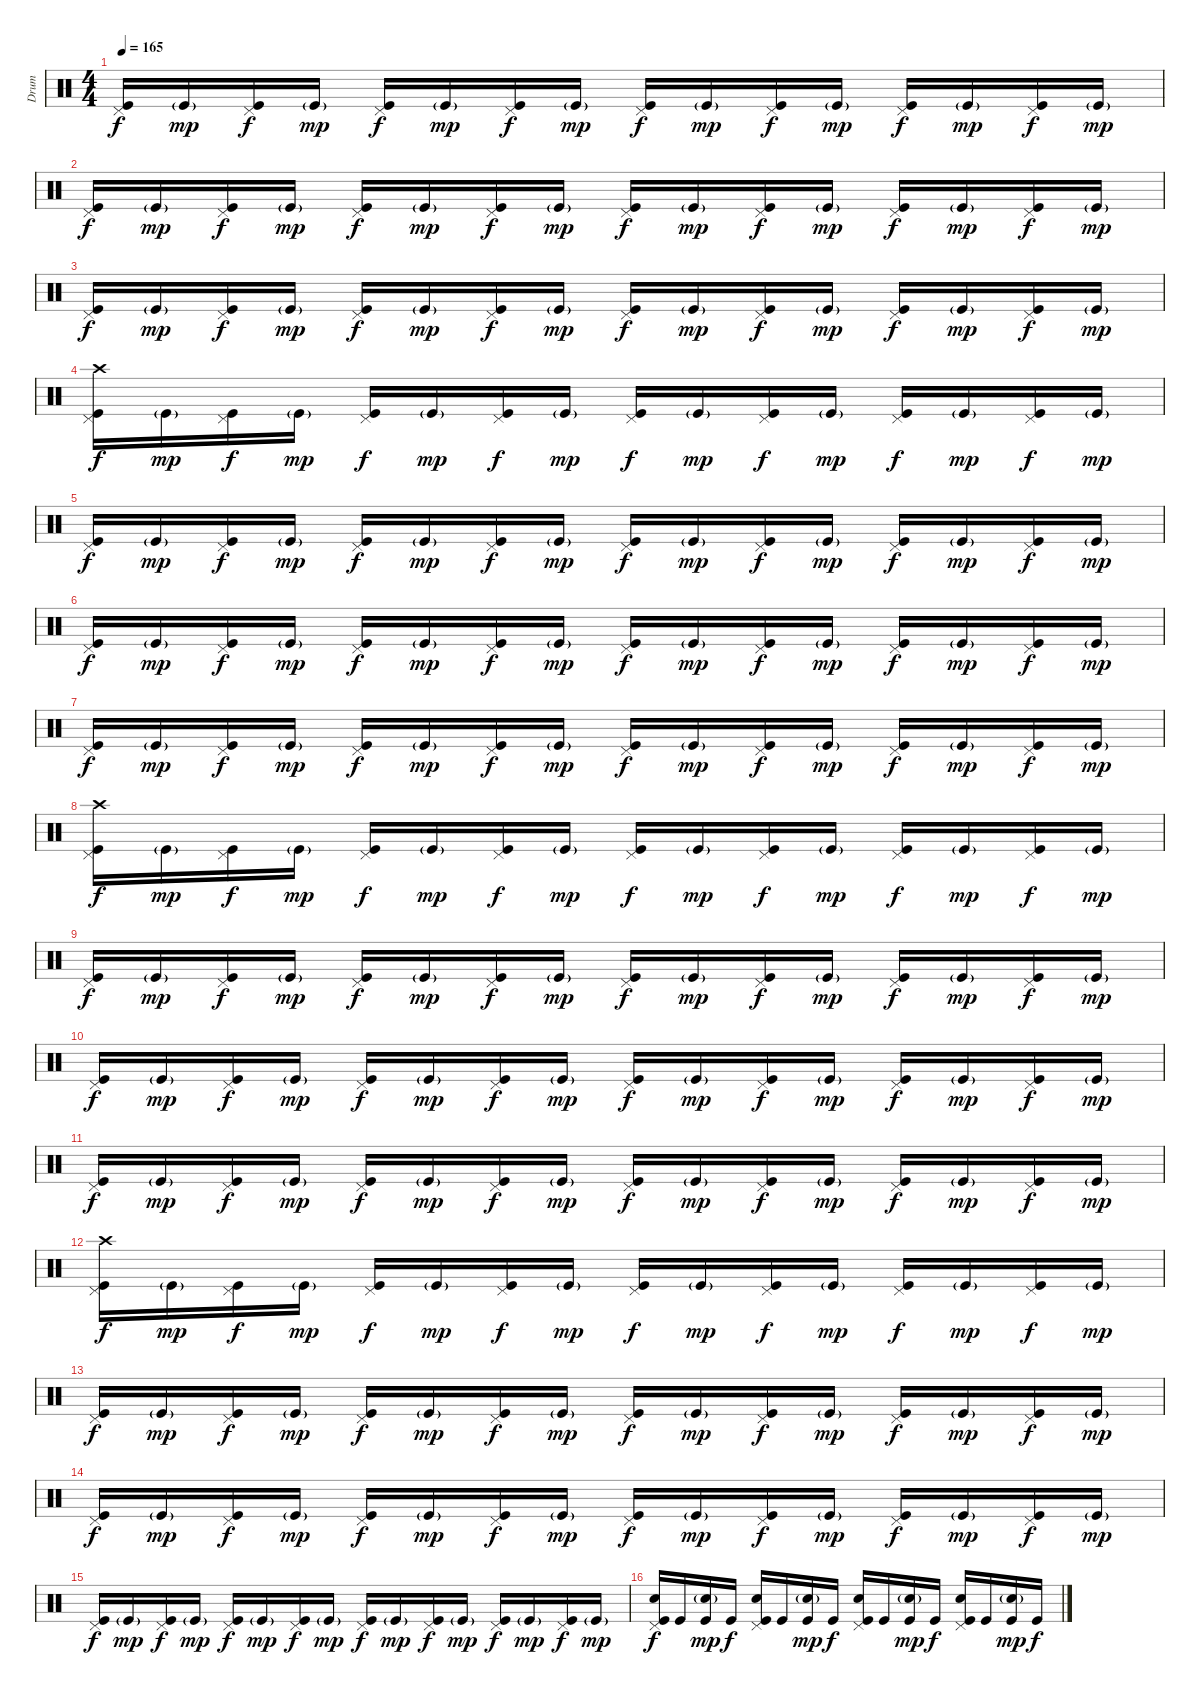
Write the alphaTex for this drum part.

\track ("Drum" "Drum") {instrument percussion}
\staff {score}
\articulation defaults
\ts (4 4)
\tempo 165
\clef neutral
\ks c
("Pedal Hi-Hat (hit)" "Kick (hit)").16{dy f} "Kick (hit)"{g}.16{dy mp} ("Pedal Hi-Hat (hit)" "Kick (hit)").16{dy f} "Kick (hit)"{g}.16{dy mp} ("Pedal Hi-Hat (hit)" "Kick (hit)").16{dy f} "Kick (hit)"{g}.16{dy mp} ("Pedal Hi-Hat (hit)" "Kick (hit)").16{dy f} "Kick (hit)"{g}.16{dy mp} ("Pedal Hi-Hat (hit)" "Kick (hit)").16{dy f} "Kick (hit)"{g}.16{dy mp} ("Pedal Hi-Hat (hit)" "Kick (hit)").16{dy f} "Kick (hit)"{g}.16{dy mp} ("Pedal Hi-Hat (hit)" "Kick (hit)").16{dy f} "Kick (hit)"{g}.16{dy mp} ("Pedal Hi-Hat (hit)" "Kick (hit)").16{dy f} "Kick (hit)"{g}.16{dy mp} |
("Pedal Hi-Hat (hit)" "Kick (hit)").16{dy f} "Kick (hit)"{g}.16{dy mp} ("Pedal Hi-Hat (hit)" "Kick (hit)").16{dy f} "Kick (hit)"{g}.16{dy mp} ("Pedal Hi-Hat (hit)" "Kick (hit)").16{dy f} "Kick (hit)"{g}.16{dy mp} ("Pedal Hi-Hat (hit)" "Kick (hit)").16{dy f} "Kick (hit)"{g}.16{dy mp} ("Pedal Hi-Hat (hit)" "Kick (hit)").16{dy f} "Kick (hit)"{g}.16{dy mp} ("Pedal Hi-Hat (hit)" "Kick (hit)").16{dy f} "Kick (hit)"{g}.16{dy mp} ("Pedal Hi-Hat (hit)" "Kick (hit)").16{dy f} "Kick (hit)"{g}.16{dy mp} ("Pedal Hi-Hat (hit)" "Kick (hit)").16{dy f} "Kick (hit)"{g}.16{dy mp} |
("Pedal Hi-Hat (hit)" "Kick (hit)").16{dy f} "Kick (hit)"{g}.16{dy mp} ("Pedal Hi-Hat (hit)" "Kick (hit)").16{dy f} "Kick (hit)"{g}.16{dy mp} ("Pedal Hi-Hat (hit)" "Kick (hit)").16{dy f} "Kick (hit)"{g}.16{dy mp} ("Pedal Hi-Hat (hit)" "Kick (hit)").16{dy f} "Kick (hit)"{g}.16{dy mp} ("Pedal Hi-Hat (hit)" "Kick (hit)").16{dy f} "Kick (hit)"{g}.16{dy mp} ("Pedal Hi-Hat (hit)" "Kick (hit)").16{dy f} "Kick (hit)"{g}.16{dy mp} ("Pedal Hi-Hat (hit)" "Kick (hit)").16{dy f} "Kick (hit)"{g}.16{dy mp} ("Pedal Hi-Hat (hit)" "Kick (hit)").16{dy f} "Kick (hit)"{g}.16{dy mp} |
("Crash high (hit)" "Pedal Hi-Hat (hit)" "Kick (hit)").16{dy f} "Kick (hit)"{g}.16{dy mp} ("Pedal Hi-Hat (hit)" "Kick (hit)").16{dy f} "Kick (hit)"{g}.16{dy mp} ("Pedal Hi-Hat (hit)" "Kick (hit)").16{dy f} "Kick (hit)"{g}.16{dy mp} ("Pedal Hi-Hat (hit)" "Kick (hit)").16{dy f} "Kick (hit)"{g}.16{dy mp} ("Pedal Hi-Hat (hit)" "Kick (hit)").16{dy f} "Kick (hit)"{g}.16{dy mp} ("Pedal Hi-Hat (hit)" "Kick (hit)").16{dy f} "Kick (hit)"{g}.16{dy mp} ("Pedal Hi-Hat (hit)" "Kick (hit)").16{dy f} "Kick (hit)"{g}.16{dy mp} ("Pedal Hi-Hat (hit)" "Kick (hit)").16{dy f} "Kick (hit)"{g}.16{dy mp} |
("Pedal Hi-Hat (hit)" "Kick (hit)").16{dy f} "Kick (hit)"{g}.16{dy mp} ("Pedal Hi-Hat (hit)" "Kick (hit)").16{dy f} "Kick (hit)"{g}.16{dy mp} ("Pedal Hi-Hat (hit)" "Kick (hit)").16{dy f} "Kick (hit)"{g}.16{dy mp} ("Pedal Hi-Hat (hit)" "Kick (hit)").16{dy f} "Kick (hit)"{g}.16{dy mp} ("Pedal Hi-Hat (hit)" "Kick (hit)").16{dy f} "Kick (hit)"{g}.16{dy mp} ("Pedal Hi-Hat (hit)" "Kick (hit)").16{dy f} "Kick (hit)"{g}.16{dy mp} ("Pedal Hi-Hat (hit)" "Kick (hit)").16{dy f} "Kick (hit)"{g}.16{dy mp} ("Pedal Hi-Hat (hit)" "Kick (hit)").16{dy f} "Kick (hit)"{g}.16{dy mp} |
("Pedal Hi-Hat (hit)" "Kick (hit)").16{dy f} "Kick (hit)"{g}.16{dy mp} ("Pedal Hi-Hat (hit)" "Kick (hit)").16{dy f} "Kick (hit)"{g}.16{dy mp} ("Pedal Hi-Hat (hit)" "Kick (hit)").16{dy f} "Kick (hit)"{g}.16{dy mp} ("Pedal Hi-Hat (hit)" "Kick (hit)").16{dy f} "Kick (hit)"{g}.16{dy mp} ("Pedal Hi-Hat (hit)" "Kick (hit)").16{dy f} "Kick (hit)"{g}.16{dy mp} ("Pedal Hi-Hat (hit)" "Kick (hit)").16{dy f} "Kick (hit)"{g}.16{dy mp} ("Pedal Hi-Hat (hit)" "Kick (hit)").16{dy f} "Kick (hit)"{g}.16{dy mp} ("Pedal Hi-Hat (hit)" "Kick (hit)").16{dy f} "Kick (hit)"{g}.16{dy mp} |
("Pedal Hi-Hat (hit)" "Kick (hit)").16{dy f} "Kick (hit)"{g}.16{dy mp} ("Pedal Hi-Hat (hit)" "Kick (hit)").16{dy f} "Kick (hit)"{g}.16{dy mp} ("Pedal Hi-Hat (hit)" "Kick (hit)").16{dy f} "Kick (hit)"{g}.16{dy mp} ("Pedal Hi-Hat (hit)" "Kick (hit)").16{dy f} "Kick (hit)"{g}.16{dy mp} ("Pedal Hi-Hat (hit)" "Kick (hit)").16{dy f} "Kick (hit)"{g}.16{dy mp} ("Pedal Hi-Hat (hit)" "Kick (hit)").16{dy f} "Kick (hit)"{g}.16{dy mp} ("Pedal Hi-Hat (hit)" "Kick (hit)").16{dy f} "Kick (hit)"{g}.16{dy mp} ("Pedal Hi-Hat (hit)" "Kick (hit)").16{dy f} "Kick (hit)"{g}.16{dy mp} |
("Crash high (hit)" "Pedal Hi-Hat (hit)" "Kick (hit)").16{dy f} "Kick (hit)"{g}.16{dy mp} ("Pedal Hi-Hat (hit)" "Kick (hit)").16{dy f} "Kick (hit)"{g}.16{dy mp} ("Pedal Hi-Hat (hit)" "Kick (hit)").16{dy f} "Kick (hit)"{g}.16{dy mp} ("Pedal Hi-Hat (hit)" "Kick (hit)").16{dy f} "Kick (hit)"{g}.16{dy mp} ("Pedal Hi-Hat (hit)" "Kick (hit)").16{dy f} "Kick (hit)"{g}.16{dy mp} ("Pedal Hi-Hat (hit)" "Kick (hit)").16{dy f} "Kick (hit)"{g}.16{dy mp} ("Pedal Hi-Hat (hit)" "Kick (hit)").16{dy f} "Kick (hit)"{g}.16{dy mp} ("Pedal Hi-Hat (hit)" "Kick (hit)").16{dy f} "Kick (hit)"{g}.16{dy mp} |
("Pedal Hi-Hat (hit)" "Kick (hit)").16{dy f} "Kick (hit)"{g}.16{dy mp} ("Pedal Hi-Hat (hit)" "Kick (hit)").16{dy f} "Kick (hit)"{g}.16{dy mp} ("Pedal Hi-Hat (hit)" "Kick (hit)").16{dy f} "Kick (hit)"{g}.16{dy mp} ("Pedal Hi-Hat (hit)" "Kick (hit)").16{dy f} "Kick (hit)"{g}.16{dy mp} ("Pedal Hi-Hat (hit)" "Kick (hit)").16{dy f} "Kick (hit)"{g}.16{dy mp} ("Pedal Hi-Hat (hit)" "Kick (hit)").16{dy f} "Kick (hit)"{g}.16{dy mp} ("Pedal Hi-Hat (hit)" "Kick (hit)").16{dy f} "Kick (hit)"{g}.16{dy mp} ("Pedal Hi-Hat (hit)" "Kick (hit)").16{dy f} "Kick (hit)"{g}.16{dy mp} |
("Pedal Hi-Hat (hit)" "Kick (hit)").16{dy f} "Kick (hit)"{g}.16{dy mp} ("Pedal Hi-Hat (hit)" "Kick (hit)").16{dy f} "Kick (hit)"{g}.16{dy mp} ("Pedal Hi-Hat (hit)" "Kick (hit)").16{dy f} "Kick (hit)"{g}.16{dy mp} ("Pedal Hi-Hat (hit)" "Kick (hit)").16{dy f} "Kick (hit)"{g}.16{dy mp} ("Pedal Hi-Hat (hit)" "Kick (hit)").16{dy f} "Kick (hit)"{g}.16{dy mp} ("Pedal Hi-Hat (hit)" "Kick (hit)").16{dy f} "Kick (hit)"{g}.16{dy mp} ("Pedal Hi-Hat (hit)" "Kick (hit)").16{dy f} "Kick (hit)"{g}.16{dy mp} ("Pedal Hi-Hat (hit)" "Kick (hit)").16{dy f} "Kick (hit)"{g}.16{dy mp} |
("Pedal Hi-Hat (hit)" "Kick (hit)").16{dy f} "Kick (hit)"{g}.16{dy mp} ("Pedal Hi-Hat (hit)" "Kick (hit)").16{dy f} "Kick (hit)"{g}.16{dy mp} ("Pedal Hi-Hat (hit)" "Kick (hit)").16{dy f} "Kick (hit)"{g}.16{dy mp} ("Pedal Hi-Hat (hit)" "Kick (hit)").16{dy f} "Kick (hit)"{g}.16{dy mp} ("Pedal Hi-Hat (hit)" "Kick (hit)").16{dy f} "Kick (hit)"{g}.16{dy mp} ("Pedal Hi-Hat (hit)" "Kick (hit)").16{dy f} "Kick (hit)"{g}.16{dy mp} ("Pedal Hi-Hat (hit)" "Kick (hit)").16{dy f} "Kick (hit)"{g}.16{dy mp} ("Pedal Hi-Hat (hit)" "Kick (hit)").16{dy f} "Kick (hit)"{g}.16{dy mp} |
("Crash high (hit)" "Pedal Hi-Hat (hit)" "Kick (hit)").16{dy f} "Kick (hit)"{g}.16{dy mp} ("Pedal Hi-Hat (hit)" "Kick (hit)").16{dy f} "Kick (hit)"{g}.16{dy mp} ("Pedal Hi-Hat (hit)" "Kick (hit)").16{dy f} "Kick (hit)"{g}.16{dy mp} ("Pedal Hi-Hat (hit)" "Kick (hit)").16{dy f} "Kick (hit)"{g}.16{dy mp} ("Pedal Hi-Hat (hit)" "Kick (hit)").16{dy f} "Kick (hit)"{g}.16{dy mp} ("Pedal Hi-Hat (hit)" "Kick (hit)").16{dy f} "Kick (hit)"{g}.16{dy mp} ("Pedal Hi-Hat (hit)" "Kick (hit)").16{dy f} "Kick (hit)"{g}.16{dy mp} ("Pedal Hi-Hat (hit)" "Kick (hit)").16{dy f} "Kick (hit)"{g}.16{dy mp} |
("Pedal Hi-Hat (hit)" "Kick (hit)").16{dy f} "Kick (hit)"{g}.16{dy mp} ("Pedal Hi-Hat (hit)" "Kick (hit)").16{dy f} "Kick (hit)"{g}.16{dy mp} ("Pedal Hi-Hat (hit)" "Kick (hit)").16{dy f} "Kick (hit)"{g}.16{dy mp} ("Pedal Hi-Hat (hit)" "Kick (hit)").16{dy f} "Kick (hit)"{g}.16{dy mp} ("Pedal Hi-Hat (hit)" "Kick (hit)").16{dy f} "Kick (hit)"{g}.16{dy mp} ("Pedal Hi-Hat (hit)" "Kick (hit)").16{dy f} "Kick (hit)"{g}.16{dy mp} ("Pedal Hi-Hat (hit)" "Kick (hit)").16{dy f} "Kick (hit)"{g}.16{dy mp} ("Pedal Hi-Hat (hit)" "Kick (hit)").16{dy f} "Kick (hit)"{g}.16{dy mp} |
("Pedal Hi-Hat (hit)" "Kick (hit)").16{dy f} "Kick (hit)"{g}.16{dy mp} ("Pedal Hi-Hat (hit)" "Kick (hit)").16{dy f} "Kick (hit)"{g}.16{dy mp} ("Pedal Hi-Hat (hit)" "Kick (hit)").16{dy f} "Kick (hit)"{g}.16{dy mp} ("Pedal Hi-Hat (hit)" "Kick (hit)").16{dy f} "Kick (hit)"{g}.16{dy mp} ("Pedal Hi-Hat (hit)" "Kick (hit)").16{dy f} "Kick (hit)"{g}.16{dy mp} ("Pedal Hi-Hat (hit)" "Kick (hit)").16{dy f} "Kick (hit)"{g}.16{dy mp} ("Pedal Hi-Hat (hit)" "Kick (hit)").16{dy f} "Kick (hit)"{g}.16{dy mp} ("Pedal Hi-Hat (hit)" "Kick (hit)").16{dy f} "Kick (hit)"{g}.16{dy mp} |
("Pedal Hi-Hat (hit)" "Kick (hit)").16{dy f} "Kick (hit)"{g}.16{dy mp} ("Pedal Hi-Hat (hit)" "Kick (hit)").16{dy f} "Kick (hit)"{g}.16{dy mp} ("Pedal Hi-Hat (hit)" "Kick (hit)").16{dy f} "Kick (hit)"{g}.16{dy mp} ("Pedal Hi-Hat (hit)" "Kick (hit)").16{dy f} "Kick (hit)"{g}.16{dy mp} ("Pedal Hi-Hat (hit)" "Kick (hit)").16{dy f} "Kick (hit)"{g}.16{dy mp} ("Pedal Hi-Hat (hit)" "Kick (hit)").16{dy f} "Kick (hit)"{g}.16{dy mp} ("Pedal Hi-Hat (hit)" "Kick (hit)").16{dy f} "Kick (hit)"{g}.16{dy mp} ("Pedal Hi-Hat (hit)" "Kick (hit)").16{dy f} "Kick (hit)"{g}.16{dy mp} |
("Pedal Hi-Hat (hit)" "Electric Snare (hit)" "Kick (hit)").16{dy f} "Kick (hit)".16 ("Snare (hit) 2"{g} "Kick (hit)").16{dy mp} "Kick (hit)".16{dy f} ("Pedal Hi-Hat (hit)" "Electric Snare (hit)" "Kick (hit)").16 "Kick (hit)".16 ("Snare (hit) 2"{g} "Kick (hit)").16{dy mp} "Kick (hit)".16{dy f} ("Pedal Hi-Hat (hit)" "Electric Snare (hit)" "Kick (hit)").16 "Kick (hit)".16 ("Snare (hit) 2"{g} "Kick (hit)").16{dy mp} "Kick (hit)".16{dy f} ("Pedal Hi-Hat (hit)" "Electric Snare (hit)" "Kick (hit)").16 "Kick (hit)".16 ("Snare (hit) 2"{g} "Kick (hit)").16{dy mp} "Kick (hit)".16{dy f}
